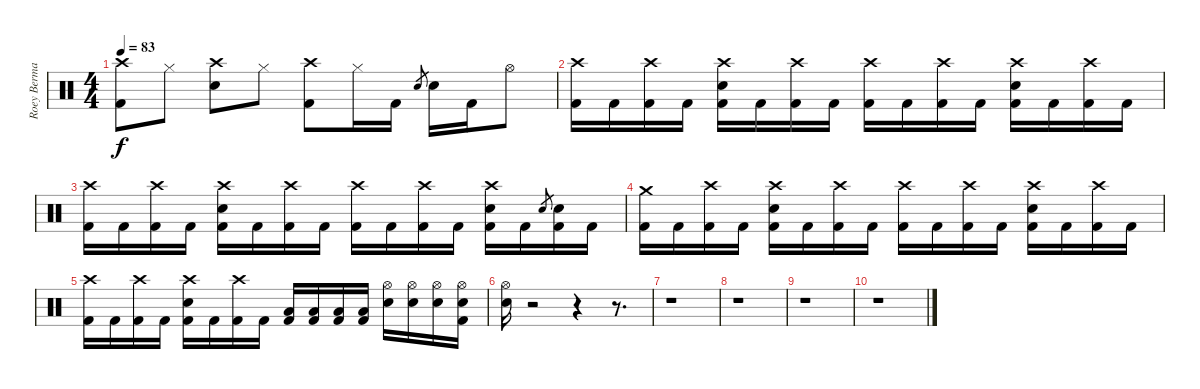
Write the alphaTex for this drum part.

\track ("Roey Berman" "Roey Berma") {instrument percussion}
\staff {score}
\articulation defaults
\ts (4 4)
\tempo 83
\clef neutral
\ks c
("Crash high (hit)" "Kick (hit) 2").8{dy f} "Hi-Hat (closed)".8 ("Crash high (hit)" "Electric Snare (hit)").8 "Hi-Hat (closed)".8 ("Crash high (hit)" "Kick (hit) 2").8 "Hi-Hat (closed)".16 "Kick (hit) 2".16 "Electric Snare (hit)".8{gr} "Electric Snare (hit)".16 "Kick (hit) 2".16 "Hi-Hat (open)".8 |
("Crash high (hit)" "Kick (hit) 2").16 "Kick (hit) 2".16 ("Crash high (hit)" "Kick (hit) 2").16 "Kick (hit) 2".16 ("Crash high (hit)" "Electric Snare (hit)" "Kick (hit) 2").16 "Kick (hit) 2".16 ("Crash high (hit)" "Kick (hit) 2").16 "Kick (hit) 2".16 ("Crash high (hit)" "Kick (hit) 2").16 "Kick (hit) 2".16 ("Crash high (hit)" "Kick (hit) 2").16 "Kick (hit) 2".16 ("Crash high (hit)" "Electric Snare (hit)" "Kick (hit) 2").16 "Kick (hit) 2".16 ("Crash high (hit)" "Kick (hit) 2").16 "Kick (hit) 2".16 |
("Crash high (hit)" "Kick (hit) 2").16 "Kick (hit) 2".16 ("Crash high (hit)" "Kick (hit) 2").16 "Kick (hit) 2".16 ("Crash high (hit)" "Electric Snare (hit)" "Kick (hit) 2").16 "Kick (hit) 2".16 ("Crash high (hit)" "Kick (hit) 2").16 "Kick (hit) 2".16 ("Crash high (hit)" "Kick (hit) 2").16 "Kick (hit) 2".16 ("Crash high (hit)" "Kick (hit) 2").16 "Kick (hit) 2".16 ("Crash high (hit)" "Electric Snare (hit)" "Kick (hit) 2").16 "Kick (hit) 2".16 "Electric Snare (hit)".8{gr} ("Electric Snare (hit)" "Kick (hit) 2").16 "Kick (hit) 2".16 |
("Crash medium (hit)" "Kick (hit) 2").16 "Kick (hit) 2".16 ("Crash high (hit)" "Kick (hit) 2").16 "Kick (hit) 2".16 ("Crash high (hit)" "Electric Snare (hit)" "Kick (hit) 2").16 "Kick (hit) 2".16 ("Crash high (hit)" "Kick (hit) 2").16 "Kick (hit) 2".16 ("Crash high (hit)" "Kick (hit) 2").16 "Kick (hit) 2".16 ("Crash high (hit)" "Kick (hit) 2").16 "Kick (hit) 2".16 ("Crash high (hit)" "Electric Snare (hit)" "Kick (hit) 2").16 "Kick (hit) 2".16 ("Crash high (hit)" "Kick (hit) 2").16 "Kick (hit) 2".16 |
("Crash high (hit)" "Kick (hit) 2").16 "Kick (hit) 2".16 ("Crash high (hit)" "Kick (hit) 2").16 "Kick (hit) 2".16 ("Crash high (hit)" "Electric Snare (hit)" "Kick (hit) 2").16 "Kick (hit) 2".16 ("Crash high (hit)" "Kick (hit) 2").16 "Kick (hit) 2".16 ("Low Tom (hit)" "Kick (hit) 2").16 ("Low Tom (hit)" "Kick (hit) 2").16 ("Low Tom (hit)" "Kick (hit) 2").16 ("Low Tom (hit)" "Kick (hit) 2").16 ("Hi-Hat (open)" "Electric Snare (hit)").16 ("Hi-Hat (open)" "Electric Snare (hit)").16 ("Hi-Hat (open)" "Electric Snare (hit)").16 ("Hi-Hat (open)" "Electric Snare (hit)" "Kick (hit) 2").16 |
("Hi-Hat (open)" "Electric Snare (hit)").16 r.2 r.4 r.8{d} |
r.1 |
r.1 |
r.1 |
r.1
